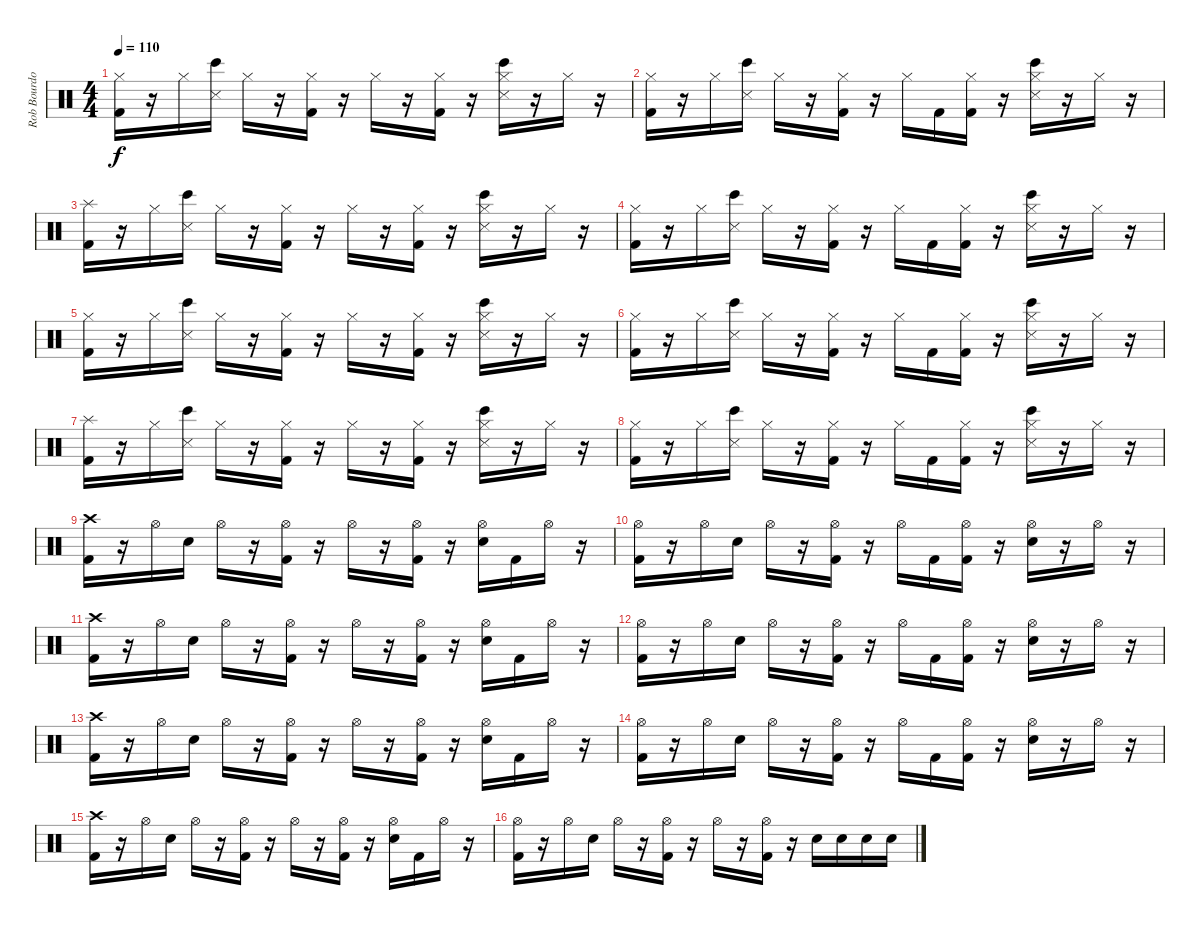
\track ("Rob Bourdon (Drums)" "Rob Bourdo") {instrument percussion}
\staff {score}
\articulation defaults
\ts (4 4)
\tempo 110
\clef neutral
\ks c
("Hi-Hat (closed)" "Kick (hit) 2").16{dy f} r.16 "Hi-Hat (closed)".16 ("Snare (side stick) 3" "Bongo High (hit)").16 "Hi-Hat (closed)".16 r.16 ("Hi-Hat (closed)" "Kick (hit) 2").16 r.16 "Hi-Hat (closed)".16 r.16 ("Hi-Hat (closed)" "Kick (hit) 2").16 r.16 ("Hi-Hat (closed)" "Snare (side stick) 3" "Bongo High (hit)").16 r.16 "Hi-Hat (closed)".16 r.16 |
("Hi-Hat (closed)" "Kick (hit) 2").16 r.16 "Hi-Hat (closed)".16 ("Snare (side stick) 3" "Bongo High (hit)").16 "Hi-Hat (closed)".16 r.16 ("Hi-Hat (closed)" "Kick (hit) 2").16 r.16 "Hi-Hat (closed)".16 "Kick (hit) 2".16 ("Hi-Hat (closed)" "Kick (hit) 2").16 r.16 ("Hi-Hat (closed)" "Snare (side stick) 3" "Bongo High (hit)").16 r.16 "Hi-Hat (closed)".16 r.16 |
("Splash (hit)" "Kick (hit) 2").16 r.16 "Hi-Hat (closed)".16 ("Snare (side stick) 3" "Bongo High (hit)").16 "Hi-Hat (closed)".16 r.16 ("Hi-Hat (closed)" "Kick (hit) 2").16 r.16 "Hi-Hat (closed)".16 r.16 ("Hi-Hat (closed)" "Kick (hit) 2").16 r.16 ("Hi-Hat (closed)" "Snare (side stick) 3" "Bongo High (hit)").16 r.16 "Hi-Hat (closed)".16 r.16 |
("Hi-Hat (closed)" "Kick (hit) 2").16 r.16 "Hi-Hat (closed)".16 ("Snare (side stick) 3" "Bongo High (hit)").16 "Hi-Hat (closed)".16 r.16 ("Hi-Hat (closed)" "Kick (hit) 2").16 r.16 "Hi-Hat (closed)".16 "Kick (hit) 2".16 ("Hi-Hat (closed)" "Kick (hit) 2").16 r.16 ("Hi-Hat (closed)" "Snare (side stick) 3" "Bongo High (hit)").16 r.16 "Hi-Hat (closed)".16 r.16 |
("Hi-Hat (closed)" "Kick (hit) 2").16 r.16 "Hi-Hat (closed)".16 ("Snare (side stick) 3" "Bongo High (hit)").16 "Hi-Hat (closed)".16 r.16 ("Hi-Hat (closed)" "Kick (hit) 2").16 r.16 "Hi-Hat (closed)".16 r.16 ("Hi-Hat (closed)" "Kick (hit) 2").16 r.16 ("Hi-Hat (closed)" "Snare (side stick) 3" "Bongo High (hit)").16 r.16 "Hi-Hat (closed)".16 r.16 |
("Hi-Hat (closed)" "Kick (hit) 2").16 r.16 "Hi-Hat (closed)".16 ("Snare (side stick) 3" "Bongo High (hit)").16 "Hi-Hat (closed)".16 r.16 ("Hi-Hat (closed)" "Kick (hit) 2").16 r.16 "Hi-Hat (closed)".16 "Kick (hit) 2".16 ("Hi-Hat (closed)" "Kick (hit) 2").16 r.16 ("Hi-Hat (closed)" "Snare (side stick) 3" "Bongo High (hit)").16 r.16 "Hi-Hat (closed)".16 r.16 |
("Splash (hit)" "Kick (hit) 2").16 r.16 "Hi-Hat (closed)".16 ("Snare (side stick) 3" "Bongo High (hit)").16 "Hi-Hat (closed)".16 r.16 ("Hi-Hat (closed)" "Kick (hit) 2").16 r.16 "Hi-Hat (closed)".16 r.16 ("Hi-Hat (closed)" "Kick (hit) 2").16 r.16 ("Hi-Hat (closed)" "Snare (side stick) 3" "Bongo High (hit)").16 r.16 "Hi-Hat (closed)".16 r.16 |
("Hi-Hat (closed)" "Kick (hit) 2").16 r.16 "Hi-Hat (closed)".16 ("Snare (side stick) 3" "Bongo High (hit)").16 "Hi-Hat (closed)".16 r.16 ("Hi-Hat (closed)" "Kick (hit) 2").16 r.16 "Hi-Hat (closed)".16 "Kick (hit) 2".16 ("Hi-Hat (closed)" "Kick (hit) 2").16 r.16 ("Hi-Hat (closed)" "Snare (side stick) 3" "Bongo High (hit)").16 r.16 "Hi-Hat (closed)".16 r.16 |
("Crash high (hit)" "Kick (hit) 2").16 r.16 "Hi-Hat (open)".16 "Electric Snare (hit)".16 "Hi-Hat (open)".16 r.16 ("Hi-Hat (open)" "Kick (hit) 2").16 r.16 "Hi-Hat (open)".16 r.16 ("Hi-Hat (open)" "Kick (hit) 2").16 r.16 ("Hi-Hat (open)" "Electric Snare (hit)").16 "Kick (hit) 2".16 "Hi-Hat (open)".16 r.16 |
("Hi-Hat (open)" "Kick (hit) 2").16 r.16 "Hi-Hat (open)".16 "Electric Snare (hit)".16 "Hi-Hat (open)".16 r.16 ("Hi-Hat (open)" "Kick (hit) 2").16 r.16 "Hi-Hat (open)".16 "Kick (hit) 2".16 ("Hi-Hat (open)" "Kick (hit) 2").16 r.16 ("Hi-Hat (open)" "Electric Snare (hit)").16 r.16 "Hi-Hat (open)".16 r.16 |
("Crash high (hit)" "Kick (hit) 2").16 r.16 "Hi-Hat (open)".16 "Electric Snare (hit)".16 "Hi-Hat (open)".16 r.16 ("Hi-Hat (open)" "Kick (hit) 2").16 r.16 "Hi-Hat (open)".16 r.16 ("Hi-Hat (open)" "Kick (hit) 2").16 r.16 ("Hi-Hat (open)" "Electric Snare (hit)").16 "Kick (hit) 2".16 "Hi-Hat (open)".16 r.16 |
("Hi-Hat (open)" "Kick (hit) 2").16 r.16 "Hi-Hat (open)".16 "Electric Snare (hit)".16 "Hi-Hat (open)".16 r.16 ("Hi-Hat (open)" "Kick (hit) 2").16 r.16 "Hi-Hat (open)".16 "Kick (hit) 2".16 ("Hi-Hat (open)" "Kick (hit) 2").16 r.16 ("Hi-Hat (open)" "Electric Snare (hit)").16 r.16 "Hi-Hat (open)".16 r.16 |
("Crash high (hit)" "Kick (hit) 2").16 r.16 "Hi-Hat (open)".16 "Electric Snare (hit)".16 "Hi-Hat (open)".16 r.16 ("Hi-Hat (open)" "Kick (hit) 2").16 r.16 "Hi-Hat (open)".16 r.16 ("Hi-Hat (open)" "Kick (hit) 2").16 r.16 ("Hi-Hat (open)" "Electric Snare (hit)").16 "Kick (hit) 2".16 "Hi-Hat (open)".16 r.16 |
("Hi-Hat (open)" "Kick (hit) 2").16 r.16 "Hi-Hat (open)".16 "Electric Snare (hit)".16 "Hi-Hat (open)".16 r.16 ("Hi-Hat (open)" "Kick (hit) 2").16 r.16 "Hi-Hat (open)".16 "Kick (hit) 2".16 ("Hi-Hat (open)" "Kick (hit) 2").16 r.16 ("Hi-Hat (open)" "Electric Snare (hit)").16 r.16 "Hi-Hat (open)".16 r.16 |
("Crash high (hit)" "Kick (hit) 2").16 r.16 "Hi-Hat (open)".16 "Electric Snare (hit)".16 "Hi-Hat (open)".16 r.16 ("Hi-Hat (open)" "Kick (hit) 2").16 r.16 "Hi-Hat (open)".16 r.16 ("Hi-Hat (open)" "Kick (hit) 2").16 r.16 ("Hi-Hat (open)" "Electric Snare (hit)").16 "Kick (hit) 2".16 "Hi-Hat (open)".16 r.16 |
("Hi-Hat (open)" "Kick (hit) 2").16 r.16 "Hi-Hat (open)".16 "Electric Snare (hit)".16 "Hi-Hat (open)".16 r.16 ("Hi-Hat (open)" "Kick (hit) 2").16 r.16 "Hi-Hat (open)".16 r.16 ("Hi-Hat (open)" "Kick (hit) 2").16 r.16 "Electric Snare (hit)".16 "Electric Snare (hit)".16 "Electric Snare (hit)".16 "Electric Snare (hit)".16
